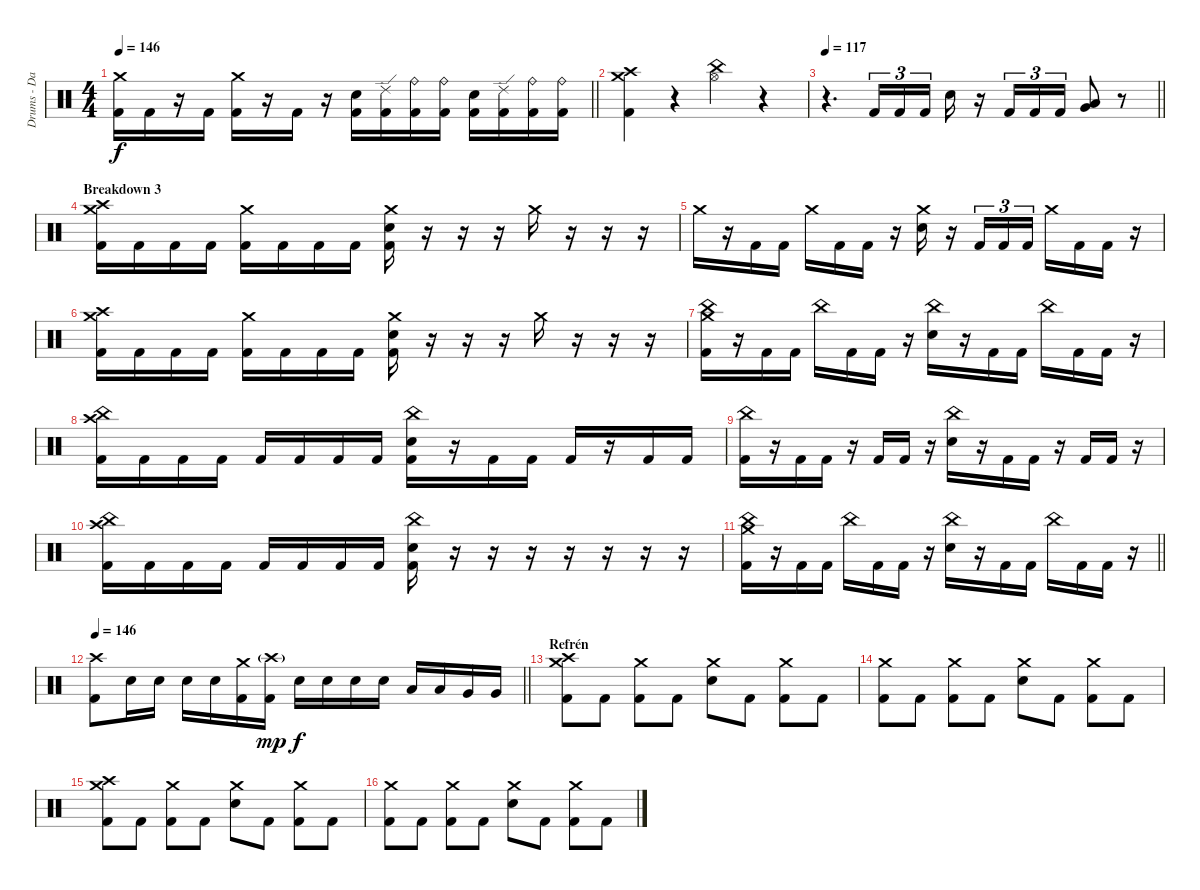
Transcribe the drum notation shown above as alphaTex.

\track ("Drums - DaDa" "Drums - Da") {instrument percussion}
\staff {score}
\articulation defaults
\ts (4 4)
\tempo 146
\clef neutral
\barLineRight lightlight
\ks c
("Crash medium (hit)" "Kick (hit) 2").16{dy f} "Kick (hit) 2".16 r.16 "Kick (hit) 2".16 ("Crash medium (hit)" "Kick (hit) 2").16 r.16 "Kick (hit) 2".16 r.16 ("Electric Snare (hit)" "Kick (hit) 2").16 ("Ride (edge) 2" "Kick (hit) 2").16 ("Ride (bell)" "Kick (hit) 2").16 ("Ride (bell)" "Kick (hit) 2").16 ("Electric Snare (hit)" "Kick (hit) 2").16 ("Ride (edge) 2" "Kick (hit) 2").16 ("Ride (bell)" "Kick (hit) 2").16 ("Ride (bell)" "Kick (hit) 2").16 |
("Crash medium (hit)" "Crash high (hit)" "Kick (hit) 2").4 r.4 ("China (hit)" "Hi-Hat (open)").4 r.4 |
\tempo 117
\barLineRight lightlight
r.4{d} "Kick (hit) 2".16{tu (3 2)} "Kick (hit) 2".16{tu (3 2)} "Kick (hit) 2".16{tu (3 2)} "Electric Snare (hit)".16 r.16 "Kick (hit) 2".16{tu (3 2)} "Kick (hit) 2".16{tu (3 2)} "Kick (hit) 2".16{tu (3 2)} ("Low Tom (hit)" "Very Low Tom (hit)").8 r.8 |
\section ("" "Breakdown 3")
("Crash high (hit)" "Crash medium (hit)" "Kick (hit) 2").16 "Kick (hit) 2".16 "Kick (hit) 2".16 "Kick (hit) 2".16 ("Crash medium (hit)" "Kick (hit) 2").16 "Kick (hit) 2".16 "Kick (hit) 2".16 "Kick (hit) 2".16 ("Crash medium (hit)" "Electric Snare (hit)" "Kick (hit) 2").16 r.16 r.16 r.16 "Crash medium (hit)".16 r.16 r.16 r.16 |
"Crash medium (hit)".16 r.16 "Kick (hit) 2".16 "Kick (hit) 2".16 "Crash medium (hit)".16 "Kick (hit) 2".16 "Kick (hit) 2".16 r.16 ("Crash medium (hit)" "Electric Snare (hit)").16 r.16 "Kick (hit) 2".16{tu (3 2)} "Kick (hit) 2".16{tu (3 2)} "Kick (hit) 2".16{tu (3 2)} "Crash medium (hit)".16 "Kick (hit) 2".16 "Kick (hit) 2".16 r.16 |
("Crash high (hit)" "Crash medium (hit)" "Kick (hit) 2").16 "Kick (hit) 2".16 "Kick (hit) 2".16 "Kick (hit) 2".16 ("Crash medium (hit)" "Kick (hit) 2").16 "Kick (hit) 2".16 "Kick (hit) 2".16 "Kick (hit) 2".16 ("Crash medium (hit)" "Electric Snare (hit)" "Kick (hit) 2").16 r.16 r.16 r.16 "Crash medium (hit)".16 r.16 r.16 r.16 |
("Crash medium (hit)" "China (hit)" "Kick (hit) 2").16 r.16 "Kick (hit) 2".16 "Kick (hit) 2".16 "China (hit)".16 "Kick (hit) 2".16 "Kick (hit) 2".16 r.16 ("China (hit)" "Electric Snare (hit)").16 r.16 "Kick (hit) 2".16 "Kick (hit) 2".16 "China (hit)".16 "Kick (hit) 2".16 "Kick (hit) 2".16 r.16 |
("Crash high (hit)" "China (hit)" "Kick (hit) 2").16 "Kick (hit) 2".16 "Kick (hit) 2".16 "Kick (hit) 2".16 "Kick (hit) 2".16 "Kick (hit) 2".16 "Kick (hit) 2".16 "Kick (hit) 2".16 ("China (hit)" "Electric Snare (hit)" "Kick (hit) 2").16 r.16 "Kick (hit) 2".16 "Kick (hit) 2".16 "Kick (hit) 2".16 r.16 "Kick (hit) 2".16 "Kick (hit) 2".16 |
("China (hit)" "Kick (hit) 2").16 r.16 "Kick (hit) 2".16 "Kick (hit) 2".16 r.16 "Kick (hit) 2".16 "Kick (hit) 2".16 r.16 ("China (hit)" "Electric Snare (hit)").16 r.16 "Kick (hit) 2".16 "Kick (hit) 2".16 r.16 "Kick (hit) 2".16 "Kick (hit) 2".16 r.16 |
("Crash high (hit)" "China (hit)" "Kick (hit) 2").16 "Kick (hit) 2".16 "Kick (hit) 2".16 "Kick (hit) 2".16 "Kick (hit) 2".16 "Kick (hit) 2".16 "Kick (hit) 2".16 "Kick (hit) 2".16 ("China (hit)" "Electric Snare (hit)" "Kick (hit) 2").16 r.16 r.16 r.16 r.16 r.16 r.16 r.16 |
\barLineRight lightlight
("Crash medium (hit)" "China (hit)" "Kick (hit) 2").16 r.16 "Kick (hit) 2".16 "Kick (hit) 2".16 "China (hit)".16 "Kick (hit) 2".16 "Kick (hit) 2".16 r.16 ("China (hit)" "Electric Snare (hit)").16 r.16 "Kick (hit) 2".16 "Kick (hit) 2".16 "China (hit)".16 "Kick (hit) 2".16 "Kick (hit) 2".16 r.16 |
\tempo 146
\barLineRight lightlight
("Crash high (hit)" "Kick (hit) 2").8 "Electric Snare (hit)".16 "Electric Snare (hit)".16 "Electric Snare (hit)".16 "Electric Snare (hit)".16 ("Crash medium (hit)" "Kick (hit) 2").16 ("Crash high (hit)"{g} "Kick (hit) 2").16{dy mp} "Electric Snare (hit)".16{dy f} "Electric Snare (hit)".16 "Electric Snare (hit)".16 "Electric Snare (hit)".16 "Low Tom (hit)".16 "Low Tom (hit)".16 "Very Low Tom (hit)".16 "Very Low Tom (hit)".16 |
\section ("" "Refrén")
("Crash medium (hit)" "Crash high (hit)" "Kick (hit) 2").8 "Kick (hit) 2".8 ("Crash medium (hit)" "Kick (hit) 2").8 "Kick (hit) 2".8 ("Crash medium (hit)" "Electric Snare (hit)").8 "Kick (hit) 2".8 ("Crash medium (hit)" "Kick (hit) 2").8 "Kick (hit) 2".8 |
("Crash medium (hit)" "Kick (hit) 2").8 "Kick (hit) 2".8 ("Crash medium (hit)" "Kick (hit) 2").8 "Kick (hit) 2".8 ("Crash medium (hit)" "Electric Snare (hit)").8 "Kick (hit) 2".8 ("Crash medium (hit)" "Kick (hit) 2").8 "Kick (hit) 2".8 |
("Crash medium (hit)" "Crash high (hit)" "Kick (hit) 2").8 "Kick (hit) 2".8 ("Crash medium (hit)" "Kick (hit) 2").8 "Kick (hit) 2".8 ("Crash medium (hit)" "Electric Snare (hit)").8 "Kick (hit) 2".8 ("Crash medium (hit)" "Kick (hit) 2").8 "Kick (hit) 2".8 |
("Crash medium (hit)" "Kick (hit) 2").8 "Kick (hit) 2".8 ("Crash medium (hit)" "Kick (hit) 2").8 "Kick (hit) 2".8 ("Crash medium (hit)" "Electric Snare (hit)").8 "Kick (hit) 2".8 ("Crash medium (hit)" "Kick (hit) 2").8 "Kick (hit) 2".8
